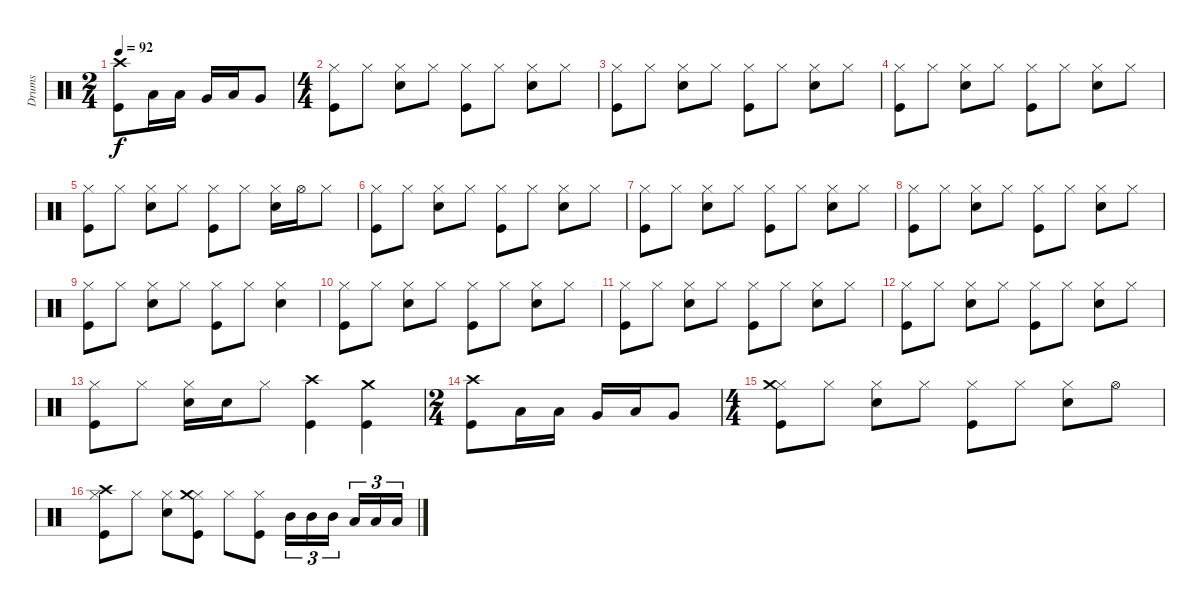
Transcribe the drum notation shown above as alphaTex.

\track ("Drums" "Drums") {instrument percussion}
\staff {score}
\articulation defaults
\ts (2 4)
\tempo 92
\clef neutral
\ks c
("Kick (hit)" "Crash high (hit)").8{dy f} "Low Tom (hit)".16 "Low Tom (hit)".16 "Very Low Tom (hit)".16 "Low Tom (hit)".16 "Very Low Tom (hit)".8 |
\ts (4 4)
("Kick (hit)" "Hi-Hat (closed)").8 "Hi-Hat (closed)".8 ("Electric Snare (hit)" "Hi-Hat (closed)").8 "Hi-Hat (closed)".8 ("Kick (hit)" "Hi-Hat (closed)").8 "Hi-Hat (closed)".8 ("Electric Snare (hit)" "Hi-Hat (closed)").8 "Hi-Hat (closed)".8 |
("Kick (hit)" "Hi-Hat (closed)").8 "Hi-Hat (closed)".8 ("Electric Snare (hit)" "Hi-Hat (closed)").8 "Hi-Hat (closed)".8 ("Kick (hit)" "Hi-Hat (closed)").8 "Hi-Hat (closed)".8 ("Electric Snare (hit)" "Hi-Hat (closed)").8 "Hi-Hat (closed)".8 |
("Kick (hit)" "Hi-Hat (closed)").8 "Hi-Hat (closed)".8 ("Electric Snare (hit)" "Hi-Hat (closed)").8 "Hi-Hat (closed)".8 ("Kick (hit)" "Hi-Hat (closed)").8 "Hi-Hat (closed)".8 ("Electric Snare (hit)" "Hi-Hat (closed)").8 "Hi-Hat (closed)".8 |
("Kick (hit)" "Hi-Hat (closed)").8 "Hi-Hat (closed)".8 ("Electric Snare (hit)" "Hi-Hat (closed)").8 "Hi-Hat (closed)".8 ("Kick (hit)" "Hi-Hat (closed)").8 "Hi-Hat (closed)".8 ("Electric Snare (hit)" "Hi-Hat (closed)").16 "Hi-Hat (open)".16 "Hi-Hat (closed)".8 |
("Kick (hit)" "Hi-Hat (closed)").8 "Hi-Hat (closed)".8 ("Electric Snare (hit)" "Hi-Hat (closed)").8 "Hi-Hat (closed)".8 ("Kick (hit)" "Hi-Hat (closed)").8 "Hi-Hat (closed)".8 ("Electric Snare (hit)" "Hi-Hat (closed)").8 "Hi-Hat (closed)".8 |
("Kick (hit)" "Hi-Hat (closed)").8 "Hi-Hat (closed)".8 ("Electric Snare (hit)" "Hi-Hat (closed)").8 "Hi-Hat (closed)".8 ("Kick (hit)" "Hi-Hat (closed)").8 "Hi-Hat (closed)".8 ("Electric Snare (hit)" "Hi-Hat (closed)").8 "Hi-Hat (closed)".8 |
("Kick (hit)" "Hi-Hat (closed)").8 "Hi-Hat (closed)".8 ("Electric Snare (hit)" "Hi-Hat (closed)").8 "Hi-Hat (closed)".8 ("Kick (hit)" "Hi-Hat (closed)").8 "Hi-Hat (closed)".8 ("Electric Snare (hit)" "Hi-Hat (closed)").8 "Hi-Hat (closed)".8 |
("Kick (hit)" "Hi-Hat (closed)").8 "Hi-Hat (closed)".8 ("Electric Snare (hit)" "Hi-Hat (closed)").8 "Hi-Hat (closed)".8 ("Kick (hit)" "Hi-Hat (closed)").8 "Hi-Hat (closed)".8 ("Electric Snare (hit)" "Hi-Hat (closed)").4 |
("Kick (hit)" "Hi-Hat (closed)").8 "Hi-Hat (closed)".8 ("Electric Snare (hit)" "Hi-Hat (closed)").8 "Hi-Hat (closed)".8 ("Kick (hit)" "Hi-Hat (closed)").8 "Hi-Hat (closed)".8 ("Electric Snare (hit)" "Hi-Hat (closed)").8 "Hi-Hat (closed)".8 |
("Kick (hit)" "Hi-Hat (closed)").8 "Hi-Hat (closed)".8 ("Electric Snare (hit)" "Hi-Hat (closed)").8 "Hi-Hat (closed)".8 ("Kick (hit)" "Hi-Hat (closed)").8 "Hi-Hat (closed)".8 ("Electric Snare (hit)" "Hi-Hat (closed)").8 "Hi-Hat (closed)".8 |
("Kick (hit)" "Hi-Hat (closed)").8 "Hi-Hat (closed)".8 ("Electric Snare (hit)" "Hi-Hat (closed)").8 "Hi-Hat (closed)".8 ("Kick (hit)" "Hi-Hat (closed)").8 "Hi-Hat (closed)".8 ("Electric Snare (hit)" "Hi-Hat (closed)").8 "Hi-Hat (closed)".8 |
("Kick (hit)" "Hi-Hat (closed)").8 "Hi-Hat (closed)".8 ("Electric Snare (hit)" "Hi-Hat (closed)").16 "Electric Snare (hit)".16 "Hi-Hat (closed)".8 ("Kick (hit)" "Crash high (hit)").4 ("Kick (hit)" "Crash medium (hit)").4 |
\ts (2 4)
("Kick (hit)" "Crash high (hit)").8 "Low Tom (hit)".16 "Low Tom (hit)".16 "Very Low Tom (hit)".16 "Low Tom (hit)".16 "Very Low Tom (hit)".8 |
\ts (4 4)
("Kick (hit)" "Hi-Hat (closed)" "Crash medium (hit)").8 "Hi-Hat (closed)".8 ("Electric Snare (hit)" "Hi-Hat (closed)").8 "Hi-Hat (closed)".8 ("Kick (hit)" "Hi-Hat (closed)").8 "Hi-Hat (closed)".8 ("Electric Snare (hit)" "Hi-Hat (closed)").8 "Hi-Hat (open)".8 |
("Kick (hit)" "Hi-Hat (closed)" "Crash high (hit)").8 "Hi-Hat (closed)".8 ("Electric Snare (hit)" "Hi-Hat (closed)").8 ("Kick (hit)" "Hi-Hat (closed)" "Crash medium (hit)").8 "Hi-Hat (closed)".8 ("Kick (hit)" "Hi-Hat (closed)").8 "Mid Tom (hit)".16{tu (3 2)} "Mid Tom (hit)".16{tu (3 2)} "Mid Tom (hit)".16{tu (3 2)} "Low Tom (hit)".16{tu (3 2)} "Low Tom (hit)".16{tu (3 2)} "Low Tom (hit)".16{tu (3 2)}
